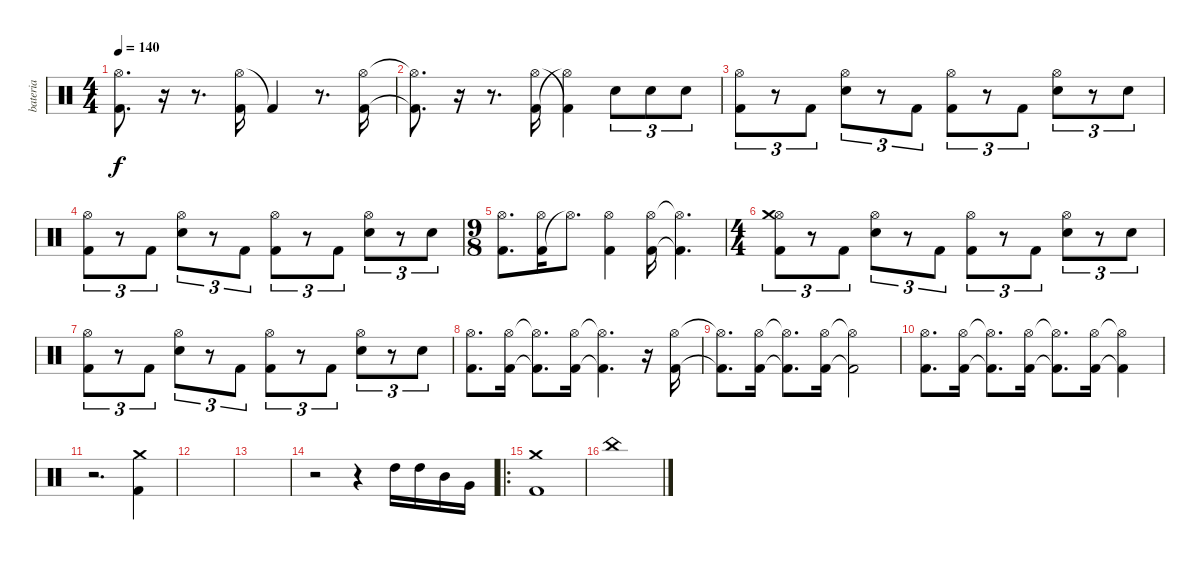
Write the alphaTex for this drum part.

\track ("bateria" "bateria") {mute instrument percussion}
\staff {score}
\articulation defaults
\ts (4 4)
\tempo 140
\clef neutral
\ks c
("Kick (hit) 2" "Hi-Hat (open)").8{d dy f} r.16 r.8{d} ("Hi-Hat (open)" "Kick (hit) 2").16 "Kick (hit) 2"{t}.4 r.8{d} ("Kick (hit) 2" "Hi-Hat (open)").16 |
("Kick (hit) 2"{t} "Hi-Hat (open)"{t}).8{d} r.16 r.8{d} ("Kick (hit) 2" "Hi-Hat (open)").16 ("Hi-Hat (open)"{t} "Kick (hit) 2"{t}).4 "Electric Snare (hit)".8{tu (3 2)} "Electric Snare (hit)".8{tu (3 2)} "Electric Snare (hit)".8{tu (3 2)} |
("Hi-Hat (open)" "Kick (hit) 2").8{tu (3 2)} r.8{tu (3 2)} "Kick (hit) 2".8{tu (3 2)} ("Electric Snare (hit)" "Hi-Hat (open)").8{tu (3 2)} r.8{tu (3 2)} "Kick (hit) 2".8{tu (3 2)} ("Kick (hit) 2" "Hi-Hat (open)").8{tu (3 2)} r.8{tu (3 2)} "Kick (hit) 2".8{tu (3 2)} ("Electric Snare (hit)" "Hi-Hat (open)").8{tu (3 2)} r.8{tu (3 2)} "Electric Snare (hit)".8{tu (3 2)} |
("Hi-Hat (open)" "Kick (hit) 2").8{tu (3 2)} r.8{tu (3 2)} "Kick (hit) 2".8{tu (3 2)} ("Electric Snare (hit)" "Hi-Hat (open)").8{tu (3 2)} r.8{tu (3 2)} "Kick (hit) 2".8{tu (3 2)} ("Kick (hit) 2" "Hi-Hat (open)").8{tu (3 2)} r.8{tu (3 2)} "Kick (hit) 2".8{tu (3 2)} ("Electric Snare (hit)" "Hi-Hat (open)").8{tu (3 2)} r.8{tu (3 2)} "Electric Snare (hit)".8{tu (3 2)} |
\ts (9 8)
("Kick (hit) 2" "Hi-Hat (open)").8{d} ("Kick (hit) 2" "Hi-Hat (open)").16 "Hi-Hat (open)"{t}.8{d} ("Kick (hit) 2" "Hi-Hat (open)").4 ("Kick (hit) 2" "Hi-Hat (open)").16 ("Kick (hit) 2"{t} "Hi-Hat (open)"{t}).4{d} |
\ts (4 4)
("Hi-Hat (open)" "Kick (hit) 2" "Crash medium (hit)").8{tu (3 2)} r.8{tu (3 2)} "Kick (hit) 2".8{tu (3 2)} ("Electric Snare (hit)" "Hi-Hat (open)").8{tu (3 2)} r.8{tu (3 2)} "Kick (hit) 2".8{tu (3 2)} ("Kick (hit) 2" "Hi-Hat (open)").8{tu (3 2)} r.8{tu (3 2)} "Kick (hit) 2".8{tu (3 2)} ("Electric Snare (hit)" "Hi-Hat (open)").8{tu (3 2)} r.8{tu (3 2)} "Electric Snare (hit)".8{tu (3 2)} |
("Hi-Hat (open)" "Kick (hit) 2").8{tu (3 2)} r.8{tu (3 2)} "Kick (hit) 2".8{tu (3 2)} ("Electric Snare (hit)" "Hi-Hat (open)").8{tu (3 2)} r.8{tu (3 2)} "Kick (hit) 2".8{tu (3 2)} ("Kick (hit) 2" "Hi-Hat (open)").8{tu (3 2)} r.8{tu (3 2)} "Kick (hit) 2".8{tu (3 2)} ("Electric Snare (hit)" "Hi-Hat (open)").8{tu (3 2)} r.8{tu (3 2)} "Electric Snare (hit)".8{tu (3 2)} |
("Kick (hit) 2" "Hi-Hat (open)").8{d} ("Kick (hit) 2" "Hi-Hat (open)").16 ("Kick (hit) 2"{t} "Hi-Hat (open)"{t}).8{d} ("Kick (hit) 2" "Hi-Hat (open)").16 ("Kick (hit) 2"{t} "Hi-Hat (open)"{t}).4{d} r.16 ("Kick (hit) 2" "Hi-Hat (open)").16 |
("Kick (hit) 2"{t} "Hi-Hat (open)"{t}).8{d} ("Kick (hit) 2" "Hi-Hat (open)").16 ("Kick (hit) 2"{t} "Hi-Hat (open)"{t}).8{d} ("Kick (hit) 2" "Hi-Hat (open)").16 ("Kick (hit) 2"{t} "Hi-Hat (open)"{t}).2 |
("Kick (hit) 2" "Hi-Hat (open)").8{d} ("Kick (hit) 2" "Hi-Hat (open)").16 ("Kick (hit) 2"{t} "Hi-Hat (open)"{t}).8{d} ("Kick (hit) 2" "Hi-Hat (open)").16 ("Kick (hit) 2"{t} "Hi-Hat (open)"{t}).8{d} ("Kick (hit) 2" "Hi-Hat (open)").16 ("Kick (hit) 2"{t} "Hi-Hat (open)"{t}).4 |
r.2{d} ("Kick (hit) 2" "Crash medium (hit)").4 |
|
|
r.2 r.4 "High Tom (hit)".16 "High Tom (hit)".16 "Mid Tom (hit)".16 "Very Low Tom (hit)".16 |
\ro
("Kick (hit) 2" "Crash medium (hit)").1 |
"China (hit)".1
